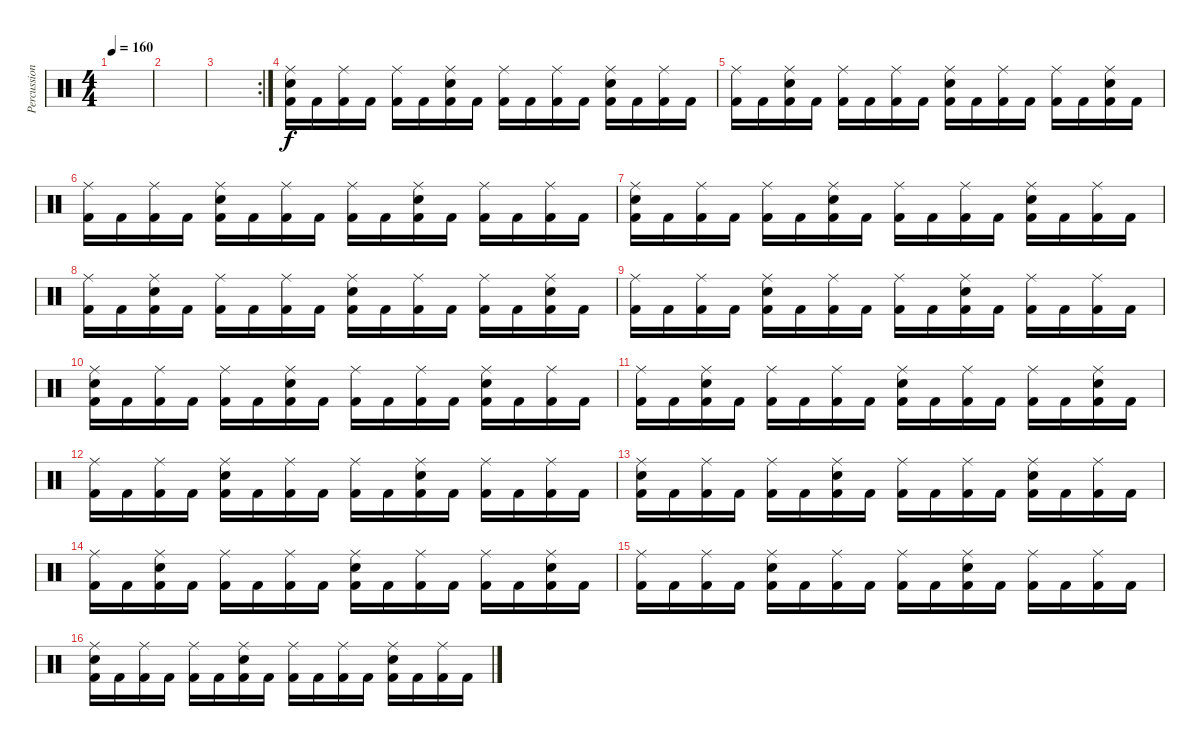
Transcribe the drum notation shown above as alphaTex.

\track ("Percussions" "Percussion") {instrument percussion}
\staff {score}
\articulation defaults
\ts (4 4)
\tempo 160
\clef neutral
\ks c
|
|
\rc 2
|
("Kick (hit) 2" "Electric Snare (hit)" "Ride (middle)").16 "Kick (hit) 2".16 ("Kick (hit) 2" "Ride (middle)").16 "Kick (hit) 2".16 ("Kick (hit) 2" "Ride (middle)").16 "Kick (hit) 2".16 ("Kick (hit) 2" "Electric Snare (hit)" "Ride (middle)").16 "Kick (hit) 2".16 ("Kick (hit) 2" "Ride (middle)").16 "Kick (hit) 2".16 ("Kick (hit) 2" "Ride (middle)").16 "Kick (hit) 2".16 ("Kick (hit) 2" "Electric Snare (hit)" "Ride (middle)").16 "Kick (hit) 2".16 ("Kick (hit) 2" "Ride (middle)").16 "Kick (hit) 2".16 |
("Kick (hit) 2" "Ride (middle)").16 "Kick (hit) 2".16 ("Kick (hit) 2" "Electric Snare (hit)" "Ride (middle)").16 "Kick (hit) 2".16 ("Kick (hit) 2" "Ride (middle)").16 "Kick (hit) 2".16 ("Kick (hit) 2" "Ride (middle)").16 "Kick (hit) 2".16 ("Kick (hit) 2" "Electric Snare (hit)" "Ride (middle)").16 "Kick (hit) 2".16 ("Kick (hit) 2" "Ride (middle)").16 "Kick (hit) 2".16 ("Kick (hit) 2" "Ride (middle)").16 "Kick (hit) 2".16 ("Kick (hit) 2" "Electric Snare (hit)" "Ride (middle)").16 "Kick (hit) 2".16 |
("Kick (hit) 2" "Ride (middle)").16 "Kick (hit) 2".16 ("Kick (hit) 2" "Ride (middle)").16 "Kick (hit) 2".16 ("Kick (hit) 2" "Electric Snare (hit)" "Ride (middle)").16 "Kick (hit) 2".16 ("Kick (hit) 2" "Ride (middle)").16 "Kick (hit) 2".16 ("Kick (hit) 2" "Ride (middle)").16 "Kick (hit) 2".16 ("Kick (hit) 2" "Electric Snare (hit)" "Ride (middle)").16 "Kick (hit) 2".16 ("Kick (hit) 2" "Ride (middle)").16 "Kick (hit) 2".16 ("Kick (hit) 2" "Ride (middle)").16 "Kick (hit) 2".16 |
("Kick (hit) 2" "Electric Snare (hit)" "Ride (middle)").16 "Kick (hit) 2".16 ("Kick (hit) 2" "Ride (middle)").16 "Kick (hit) 2".16 ("Kick (hit) 2" "Ride (middle)").16 "Kick (hit) 2".16 ("Kick (hit) 2" "Electric Snare (hit)" "Ride (middle)").16 "Kick (hit) 2".16 ("Kick (hit) 2" "Ride (middle)").16 "Kick (hit) 2".16 ("Kick (hit) 2" "Ride (middle)").16 "Kick (hit) 2".16 ("Kick (hit) 2" "Electric Snare (hit)" "Ride (middle)").16 "Kick (hit) 2".16 ("Kick (hit) 2" "Ride (middle)").16 "Kick (hit) 2".16 |
("Kick (hit) 2" "Ride (middle)").16 "Kick (hit) 2".16 ("Kick (hit) 2" "Electric Snare (hit)" "Ride (middle)").16 "Kick (hit) 2".16 ("Kick (hit) 2" "Ride (middle)").16 "Kick (hit) 2".16 ("Kick (hit) 2" "Ride (middle)").16 "Kick (hit) 2".16 ("Kick (hit) 2" "Electric Snare (hit)" "Ride (middle)").16 "Kick (hit) 2".16 ("Kick (hit) 2" "Ride (middle)").16 "Kick (hit) 2".16 ("Kick (hit) 2" "Ride (middle)").16 "Kick (hit) 2".16 ("Kick (hit) 2" "Electric Snare (hit)" "Ride (middle)").16 "Kick (hit) 2".16 |
("Kick (hit) 2" "Ride (middle)").16 "Kick (hit) 2".16 ("Kick (hit) 2" "Ride (middle)").16 "Kick (hit) 2".16 ("Kick (hit) 2" "Electric Snare (hit)" "Ride (middle)").16 "Kick (hit) 2".16 ("Kick (hit) 2" "Ride (middle)").16 "Kick (hit) 2".16 ("Kick (hit) 2" "Ride (middle)").16 "Kick (hit) 2".16 ("Kick (hit) 2" "Electric Snare (hit)" "Ride (middle)").16 "Kick (hit) 2".16 ("Kick (hit) 2" "Ride (middle)").16 "Kick (hit) 2".16 ("Kick (hit) 2" "Ride (middle)").16 "Kick (hit) 2".16 |
("Kick (hit) 2" "Electric Snare (hit)" "Ride (middle)").16 "Kick (hit) 2".16 ("Kick (hit) 2" "Ride (middle)").16 "Kick (hit) 2".16 ("Kick (hit) 2" "Ride (middle)").16 "Kick (hit) 2".16 ("Kick (hit) 2" "Electric Snare (hit)" "Ride (middle)").16 "Kick (hit) 2".16 ("Kick (hit) 2" "Ride (middle)").16 "Kick (hit) 2".16 ("Kick (hit) 2" "Ride (middle)").16 "Kick (hit) 2".16 ("Kick (hit) 2" "Electric Snare (hit)" "Ride (middle)").16 "Kick (hit) 2".16 ("Kick (hit) 2" "Ride (middle)").16 "Kick (hit) 2".16 |
("Kick (hit) 2" "Ride (middle)").16 "Kick (hit) 2".16 ("Kick (hit) 2" "Electric Snare (hit)" "Ride (middle)").16 "Kick (hit) 2".16 ("Kick (hit) 2" "Ride (middle)").16 "Kick (hit) 2".16 ("Kick (hit) 2" "Ride (middle)").16 "Kick (hit) 2".16 ("Kick (hit) 2" "Electric Snare (hit)" "Ride (middle)").16 "Kick (hit) 2".16 ("Kick (hit) 2" "Ride (middle)").16 "Kick (hit) 2".16 ("Kick (hit) 2" "Ride (middle)").16 "Kick (hit) 2".16 ("Kick (hit) 2" "Electric Snare (hit)" "Ride (middle)").16 "Kick (hit) 2".16 |
("Kick (hit) 2" "Ride (middle)").16 "Kick (hit) 2".16 ("Kick (hit) 2" "Ride (middle)").16 "Kick (hit) 2".16 ("Kick (hit) 2" "Electric Snare (hit)" "Ride (middle)").16 "Kick (hit) 2".16 ("Kick (hit) 2" "Ride (middle)").16 "Kick (hit) 2".16 ("Kick (hit) 2" "Ride (middle)").16 "Kick (hit) 2".16 ("Kick (hit) 2" "Electric Snare (hit)" "Ride (middle)").16 "Kick (hit) 2".16 ("Kick (hit) 2" "Ride (middle)").16 "Kick (hit) 2".16 ("Kick (hit) 2" "Ride (middle)").16 "Kick (hit) 2".16 |
("Kick (hit) 2" "Electric Snare (hit)" "Ride (middle)").16 "Kick (hit) 2".16 ("Kick (hit) 2" "Ride (middle)").16 "Kick (hit) 2".16 ("Kick (hit) 2" "Ride (middle)").16 "Kick (hit) 2".16 ("Kick (hit) 2" "Electric Snare (hit)" "Ride (middle)").16 "Kick (hit) 2".16 ("Kick (hit) 2" "Ride (middle)").16 "Kick (hit) 2".16 ("Kick (hit) 2" "Ride (middle)").16 "Kick (hit) 2".16 ("Kick (hit) 2" "Electric Snare (hit)" "Ride (middle)").16 "Kick (hit) 2".16 ("Kick (hit) 2" "Ride (middle)").16 "Kick (hit) 2".16 |
("Kick (hit) 2" "Ride (middle)").16 "Kick (hit) 2".16 ("Kick (hit) 2" "Electric Snare (hit)" "Ride (middle)").16 "Kick (hit) 2".16 ("Kick (hit) 2" "Ride (middle)").16 "Kick (hit) 2".16 ("Kick (hit) 2" "Ride (middle)").16 "Kick (hit) 2".16 ("Kick (hit) 2" "Electric Snare (hit)" "Ride (middle)").16 "Kick (hit) 2".16 ("Kick (hit) 2" "Ride (middle)").16 "Kick (hit) 2".16 ("Kick (hit) 2" "Ride (middle)").16 "Kick (hit) 2".16 ("Kick (hit) 2" "Electric Snare (hit)" "Ride (middle)").16 "Kick (hit) 2".16 |
("Kick (hit) 2" "Ride (middle)").16 "Kick (hit) 2".16 ("Kick (hit) 2" "Ride (middle)").16 "Kick (hit) 2".16 ("Kick (hit) 2" "Electric Snare (hit)" "Ride (middle)").16 "Kick (hit) 2".16 ("Kick (hit) 2" "Ride (middle)").16 "Kick (hit) 2".16 ("Kick (hit) 2" "Ride (middle)").16 "Kick (hit) 2".16 ("Kick (hit) 2" "Electric Snare (hit)" "Ride (middle)").16 "Kick (hit) 2".16 ("Kick (hit) 2" "Ride (middle)").16 "Kick (hit) 2".16 ("Kick (hit) 2" "Ride (middle)").16 "Kick (hit) 2".16 |
("Kick (hit) 2" "Electric Snare (hit)" "Ride (middle)").16 "Kick (hit) 2".16 ("Kick (hit) 2" "Ride (middle)").16 "Kick (hit) 2".16 ("Kick (hit) 2" "Ride (middle)").16 "Kick (hit) 2".16 ("Kick (hit) 2" "Electric Snare (hit)" "Ride (middle)").16 "Kick (hit) 2".16 ("Kick (hit) 2" "Ride (middle)").16 "Kick (hit) 2".16 ("Kick (hit) 2" "Ride (middle)").16 "Kick (hit) 2".16 ("Kick (hit) 2" "Electric Snare (hit)" "Ride (middle)").16 "Kick (hit) 2".16 ("Kick (hit) 2" "Ride (middle)").16 "Kick (hit) 2".16
